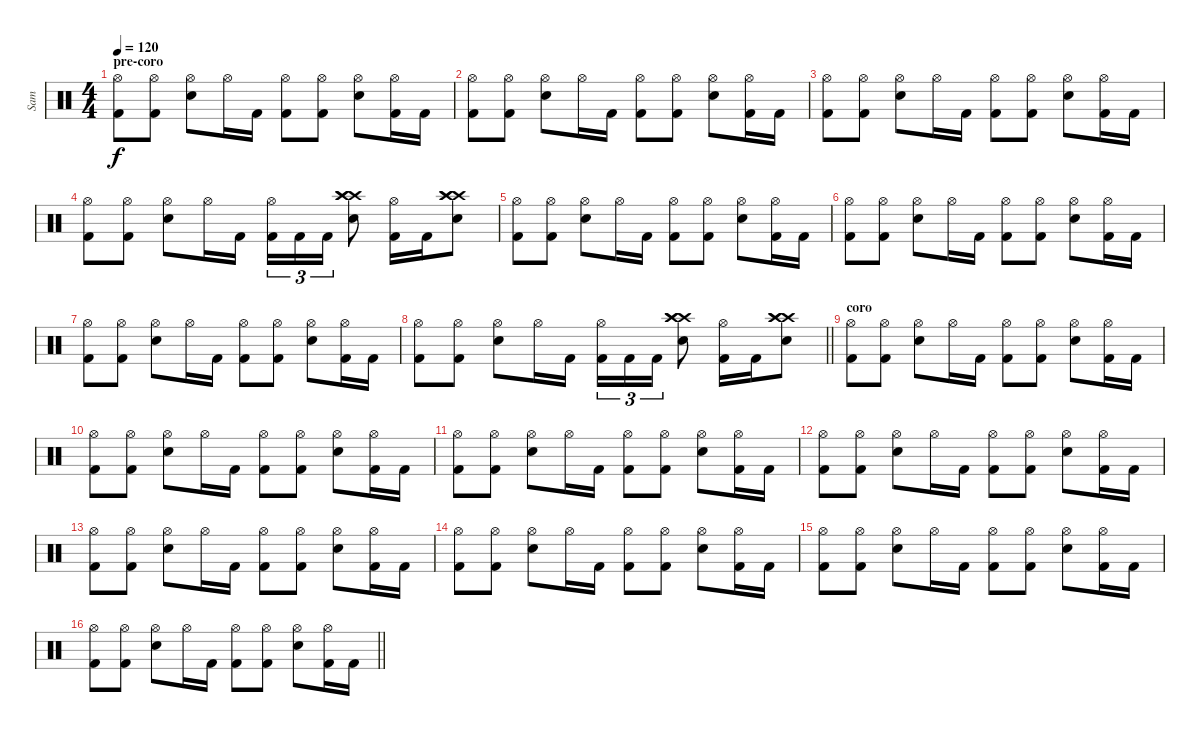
\track ("Sam" "Sam") {instrument percussion}
\staff {score}
\articulation defaults
\ts (4 4)
\section ("" "pre-coro")
\tempo 120
\clef neutral
\ks c
("Hi-Hat (open)" "Kick (hit) 2").8{dy f} ("Hi-Hat (open)" "Kick (hit) 2").8 ("Hi-Hat (open)" "Electric Snare (hit)").8 "Hi-Hat (open)".16 "Kick (hit) 2".16 ("Hi-Hat (open)" "Kick (hit) 2").8 ("Hi-Hat (open)" "Kick (hit) 2").8 ("Hi-Hat (open)" "Electric Snare (hit)").8 ("Hi-Hat (open)" "Kick (hit) 2").16 "Kick (hit) 2".16 |
("Hi-Hat (open)" "Kick (hit) 2").8 ("Hi-Hat (open)" "Kick (hit) 2").8 ("Hi-Hat (open)" "Electric Snare (hit)").8 "Hi-Hat (open)".16 "Kick (hit) 2".16 ("Hi-Hat (open)" "Kick (hit) 2").8 ("Hi-Hat (open)" "Kick (hit) 2").8 ("Hi-Hat (open)" "Electric Snare (hit)").8 ("Hi-Hat (open)" "Kick (hit) 2").16 "Kick (hit) 2".16 |
("Hi-Hat (open)" "Kick (hit) 2").8 ("Hi-Hat (open)" "Kick (hit) 2").8 ("Hi-Hat (open)" "Electric Snare (hit)").8 "Hi-Hat (open)".16 "Kick (hit) 2".16 ("Hi-Hat (open)" "Kick (hit) 2").8 ("Hi-Hat (open)" "Kick (hit) 2").8 ("Hi-Hat (open)" "Electric Snare (hit)").8 ("Hi-Hat (open)" "Kick (hit) 2").16 "Kick (hit) 2".16 |
("Hi-Hat (open)" "Kick (hit) 2").8 ("Hi-Hat (open)" "Kick (hit) 2").8 ("Hi-Hat (open)" "Electric Snare (hit)").8 "Hi-Hat (open)".16 "Kick (hit) 2".16 ("Hi-Hat (open)" "Kick (hit) 2").16{tu (3 2)} "Kick (hit) 2".16{tu (3 2)} "Kick (hit) 2".16{tu (3 2)} ("Crash high (hit)" "Crash high (hit)" "Crash high (hit)" "Electric Snare (hit)").8 ("Hi-Hat (open)" "Kick (hit) 2").16 "Kick (hit) 2".16 ("Crash high (hit)" "Crash high (hit)" "Crash high (hit)" "Electric Snare (hit)").8 |
("Hi-Hat (open)" "Kick (hit) 2").8 ("Hi-Hat (open)" "Kick (hit) 2").8 ("Hi-Hat (open)" "Electric Snare (hit)").8 "Hi-Hat (open)".16 "Kick (hit) 2".16 ("Hi-Hat (open)" "Kick (hit) 2").8 ("Hi-Hat (open)" "Kick (hit) 2").8 ("Hi-Hat (open)" "Electric Snare (hit)").8 ("Hi-Hat (open)" "Kick (hit) 2").16 "Kick (hit) 2".16 |
("Hi-Hat (open)" "Kick (hit) 2").8 ("Hi-Hat (open)" "Kick (hit) 2").8 ("Hi-Hat (open)" "Electric Snare (hit)").8 "Hi-Hat (open)".16 "Kick (hit) 2".16 ("Hi-Hat (open)" "Kick (hit) 2").8 ("Hi-Hat (open)" "Kick (hit) 2").8 ("Hi-Hat (open)" "Electric Snare (hit)").8 ("Hi-Hat (open)" "Kick (hit) 2").16 "Kick (hit) 2".16 |
("Hi-Hat (open)" "Kick (hit) 2").8 ("Hi-Hat (open)" "Kick (hit) 2").8 ("Hi-Hat (open)" "Electric Snare (hit)").8 "Hi-Hat (open)".16 "Kick (hit) 2".16 ("Hi-Hat (open)" "Kick (hit) 2").8 ("Hi-Hat (open)" "Kick (hit) 2").8 ("Hi-Hat (open)" "Electric Snare (hit)").8 ("Hi-Hat (open)" "Kick (hit) 2").16 "Kick (hit) 2".16 |
\barLineRight lightlight
("Hi-Hat (open)" "Kick (hit) 2").8 ("Hi-Hat (open)" "Kick (hit) 2").8 ("Hi-Hat (open)" "Electric Snare (hit)").8 "Hi-Hat (open)".16 "Kick (hit) 2".16 ("Hi-Hat (open)" "Kick (hit) 2").16{tu (3 2)} "Kick (hit) 2".16{tu (3 2)} "Kick (hit) 2".16{tu (3 2)} ("Crash high (hit)" "Crash high (hit)" "Crash high (hit)" "Electric Snare (hit)").8 ("Hi-Hat (open)" "Kick (hit) 2").16 "Kick (hit) 2".16 ("Crash high (hit)" "Crash high (hit)" "Crash high (hit)" "Electric Snare (hit)").8 |
\section ("" "coro")
("Hi-Hat (open)" "Kick (hit) 2").8 ("Hi-Hat (open)" "Kick (hit) 2").8 ("Hi-Hat (open)" "Electric Snare (hit)").8 "Hi-Hat (open)".16 "Kick (hit) 2".16 ("Hi-Hat (open)" "Kick (hit) 2").8 ("Hi-Hat (open)" "Kick (hit) 2").8 ("Hi-Hat (open)" "Electric Snare (hit)").8 ("Hi-Hat (open)" "Kick (hit) 2").16 "Kick (hit) 2".16 |
("Hi-Hat (open)" "Kick (hit) 2").8 ("Hi-Hat (open)" "Kick (hit) 2").8 ("Hi-Hat (open)" "Electric Snare (hit)").8 "Hi-Hat (open)".16 "Kick (hit) 2".16 ("Hi-Hat (open)" "Kick (hit) 2").8 ("Hi-Hat (open)" "Kick (hit) 2").8 ("Hi-Hat (open)" "Electric Snare (hit)").8 ("Hi-Hat (open)" "Kick (hit) 2").16 "Kick (hit) 2".16 |
("Hi-Hat (open)" "Kick (hit) 2").8 ("Hi-Hat (open)" "Kick (hit) 2").8 ("Hi-Hat (open)" "Electric Snare (hit)").8 "Hi-Hat (open)".16 "Kick (hit) 2".16 ("Hi-Hat (open)" "Kick (hit) 2").8 ("Hi-Hat (open)" "Kick (hit) 2").8 ("Hi-Hat (open)" "Electric Snare (hit)").8 ("Hi-Hat (open)" "Kick (hit) 2").16 "Kick (hit) 2".16 |
("Hi-Hat (open)" "Kick (hit) 2").8 ("Hi-Hat (open)" "Kick (hit) 2").8 ("Hi-Hat (open)" "Electric Snare (hit)").8 "Hi-Hat (open)".16 "Kick (hit) 2".16 ("Hi-Hat (open)" "Kick (hit) 2").8 ("Hi-Hat (open)" "Kick (hit) 2").8 ("Hi-Hat (open)" "Electric Snare (hit)").8 ("Hi-Hat (open)" "Kick (hit) 2").16 "Kick (hit) 2".16 |
("Hi-Hat (open)" "Kick (hit) 2").8 ("Hi-Hat (open)" "Kick (hit) 2").8 ("Hi-Hat (open)" "Electric Snare (hit)").8 "Hi-Hat (open)".16 "Kick (hit) 2".16 ("Hi-Hat (open)" "Kick (hit) 2").8 ("Hi-Hat (open)" "Kick (hit) 2").8 ("Hi-Hat (open)" "Electric Snare (hit)").8 ("Hi-Hat (open)" "Kick (hit) 2").16 "Kick (hit) 2".16 |
("Hi-Hat (open)" "Kick (hit) 2").8 ("Hi-Hat (open)" "Kick (hit) 2").8 ("Hi-Hat (open)" "Electric Snare (hit)").8 "Hi-Hat (open)".16 "Kick (hit) 2".16 ("Hi-Hat (open)" "Kick (hit) 2").8 ("Hi-Hat (open)" "Kick (hit) 2").8 ("Hi-Hat (open)" "Electric Snare (hit)").8 ("Hi-Hat (open)" "Kick (hit) 2").16 "Kick (hit) 2".16 |
("Hi-Hat (open)" "Kick (hit) 2").8 ("Hi-Hat (open)" "Kick (hit) 2").8 ("Hi-Hat (open)" "Electric Snare (hit)").8 "Hi-Hat (open)".16 "Kick (hit) 2".16 ("Hi-Hat (open)" "Kick (hit) 2").8 ("Hi-Hat (open)" "Kick (hit) 2").8 ("Hi-Hat (open)" "Electric Snare (hit)").8 ("Hi-Hat (open)" "Kick (hit) 2").16 "Kick (hit) 2".16 |
\barLineRight lightlight
("Hi-Hat (open)" "Kick (hit) 2").8 ("Hi-Hat (open)" "Kick (hit) 2").8 ("Hi-Hat (open)" "Electric Snare (hit)").8 "Hi-Hat (open)".16 "Kick (hit) 2".16 ("Hi-Hat (open)" "Kick (hit) 2").8 ("Hi-Hat (open)" "Kick (hit) 2").8 ("Hi-Hat (open)" "Electric Snare (hit)").8 ("Hi-Hat (open)" "Kick (hit) 2").16 "Kick (hit) 2".16
